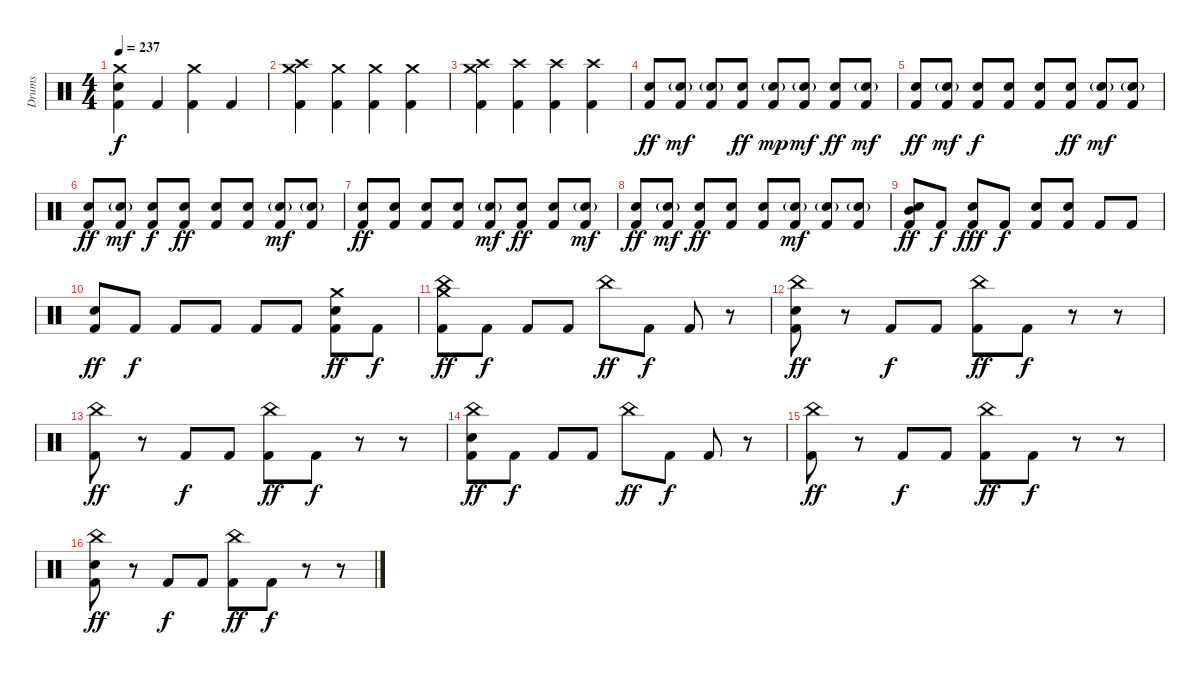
\track ("Drums" "Drums") {instrument percussion}
\staff {score}
\articulation defaults
\ts (4 4)
\tempo 237
\clef neutral
\ks c
("Crash medium (hit)" "Electric Snare (hit)" "Kick (hit) 2").4{dy f} "Kick (hit) 2".4 ("Crash medium (hit)" "Kick (hit) 2").4 "Kick (hit) 2".4 |
("Crash medium (hit)" "Crash high (hit)" "Kick (hit) 2").4 ("Crash medium (hit)" "Kick (hit) 2").4 ("Crash medium (hit)" "Kick (hit) 2").4 ("Crash medium (hit)" "Kick (hit) 2").4 |
("Crash high (hit)" "Crash medium (hit)" "Kick (hit) 2").4 ("Crash high (hit)" "Kick (hit) 2").4 ("Crash high (hit)" "Kick (hit) 2").4 ("Crash high (hit)" "Kick (hit) 2").4 |
("Electric Snare (hit)" "Kick (hit) 2").8{dy ff} ("Electric Snare (hit)"{g} "Kick (hit) 2").8{dy mf} ("Electric Snare (hit)"{g} "Kick (hit) 2").8 ("Electric Snare (hit)" "Kick (hit) 2").8{dy ff} ("Electric Snare (hit)"{g} "Kick (hit) 2").8{dy mp} ("Electric Snare (hit)"{g} "Kick (hit) 2").8{dy mf} ("Electric Snare (hit)" "Kick (hit) 2").8{dy ff} ("Electric Snare (hit)"{g} "Kick (hit) 2").8{dy mf} |
("Electric Snare (hit)" "Kick (hit) 2").8{dy ff} ("Electric Snare (hit)"{g} "Kick (hit) 2").8{dy mf} ("Electric Snare (hit)" "Kick (hit) 2").8{dy f} ("Electric Snare (hit)" "Kick (hit) 2").8 ("Electric Snare (hit)" "Kick (hit) 2").8 ("Electric Snare (hit)" "Kick (hit) 2").8{dy ff} ("Electric Snare (hit)"{g} "Kick (hit) 2").8{dy mf} ("Electric Snare (hit)"{g} "Kick (hit) 2").8 |
("Electric Snare (hit)" "Kick (hit) 2").8{dy ff} ("Electric Snare (hit)"{g} "Kick (hit) 2").8{dy mf} ("Electric Snare (hit)" "Kick (hit) 2").8{dy f} ("Electric Snare (hit)" "Kick (hit) 2").8{dy ff} ("Electric Snare (hit)" "Kick (hit) 2").8 ("Electric Snare (hit)" "Kick (hit) 2").8 ("Electric Snare (hit)"{g} "Kick (hit) 2").8{dy mf} ("Electric Snare (hit)"{g} "Kick (hit) 2").8 |
("Electric Snare (hit)" "Kick (hit) 2").8{dy ff} ("Electric Snare (hit)" "Kick (hit) 2").8 ("Electric Snare (hit)" "Kick (hit) 2").8 ("Electric Snare (hit)" "Kick (hit) 2").8 ("Electric Snare (hit)"{g} "Kick (hit) 2").8{dy mf} ("Electric Snare (hit)" "Kick (hit) 2").8{dy ff} ("Electric Snare (hit)" "Kick (hit) 2").8 ("Electric Snare (hit)"{g} "Kick (hit) 2").8{dy mf} |
("Electric Snare (hit)" "Kick (hit) 2").8{dy ff} ("Electric Snare (hit)"{g} "Kick (hit) 2").8{dy mf} ("Electric Snare (hit)" "Kick (hit) 2").8{dy ff} ("Electric Snare (hit)" "Kick (hit) 2").8 ("Electric Snare (hit)" "Kick (hit) 2").8 ("Electric Snare (hit)"{g} "Kick (hit) 2").8{dy mf} ("Electric Snare (hit)"{g} "Kick (hit) 2").8 ("Electric Snare (hit)"{g} "Kick (hit) 2").8 |
("Mid Tom (hit)" "Electric Snare (hit)" "Kick (hit) 2").8{dy ff} "Kick (hit) 2".8{dy f} ("Electric Snare (hit)" "Kick (hit) 2").8{dy fff} "Kick (hit) 2".8{dy f} ("Electric Snare (hit)" "Kick (hit) 2").8 ("Electric Snare (hit)" "Kick (hit) 2").8 "Kick (hit) 2".8 "Kick (hit) 2".8 |
("Electric Snare (hit)" "Kick (hit) 2").8{dy ff} "Kick (hit) 2".8{dy f} "Kick (hit) 2".8 "Kick (hit) 2".8 "Kick (hit) 2".8 "Kick (hit) 2".8 ("Crash medium (hit)" "Electric Snare (hit)" "Kick (hit) 2").8{dy ff} "Kick (hit) 2".8{dy f} |
("China (hit)" "Crash medium (hit)" "Kick (hit) 2").8{dy ff} "Kick (hit) 2".8{dy f} "Kick (hit) 2".8 "Kick (hit) 2".8 "China (hit)".8{dy ff} "Kick (hit) 2".8{dy f} "Kick (hit) 2".8 r.8 |
("China (hit)" "Electric Snare (hit)" "Kick (hit) 2").8{dy ff} r.8 "Kick (hit) 2".8{dy f} "Kick (hit) 2".8 ("China (hit)" "Kick (hit) 2").8{dy ff} "Kick (hit) 2".8{dy f} r.8 r.8 |
("China (hit)" "Kick (hit) 2").8{dy ff} r.8 "Kick (hit) 2".8{dy f} "Kick (hit) 2".8 ("China (hit)" "Kick (hit) 2").8{dy ff} "Kick (hit) 2".8{dy f} r.8 r.8 |
("China (hit)" "Electric Snare (hit)" "Kick (hit) 2").8{dy ff} "Kick (hit) 2".8{dy f} "Kick (hit) 2".8 "Kick (hit) 2".8 "China (hit)".8{dy ff} "Kick (hit) 2".8{dy f} "Kick (hit) 2".8 r.8 |
("China (hit)" "Kick (hit) 2").8{dy ff} r.8 "Kick (hit) 2".8{dy f} "Kick (hit) 2".8 ("China (hit)" "Kick (hit) 2").8{dy ff} "Kick (hit) 2".8{dy f} r.8 r.8 |
("China (hit)" "Electric Snare (hit)" "Kick (hit) 2").8{dy ff} r.8 "Kick (hit) 2".8{dy f} "Kick (hit) 2".8 ("China (hit)" "Kick (hit) 2").8{dy ff} "Kick (hit) 2".8{dy f} r.8 r.8
